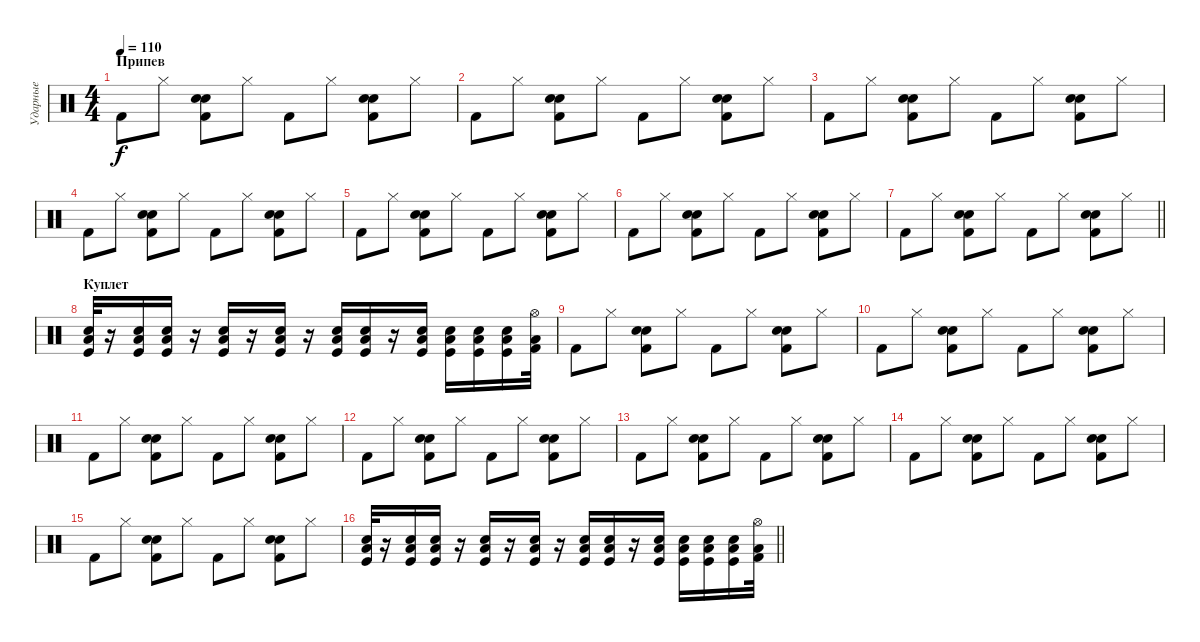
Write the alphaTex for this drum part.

\track ("Ударные" "Ударные") {instrument percussion}
\staff {score}
\articulation defaults
\ts (4 4)
\section ("" "Припев")
\tempo 110
\clef neutral
\ks c "Kick (hit) 2".8{dy f} "Hi-Hat (closed)".8
("Hand Clap (hit)" "Kick (hit) 2" "Electric Snare (hit)").8 "Hi-Hat (closed)".8 "Kick (hit) 2".8 "Hi-Hat (closed)".8 ("Hand Clap (hit)" "Kick (hit) 2" "Electric Snare (hit)").8 "Hi-Hat (closed)".8 |
"Kick (hit) 2".8 "Hi-Hat (closed)".8 ("Hand Clap (hit)" "Kick (hit) 2" "Electric Snare (hit)").8 "Hi-Hat (closed)".8 "Kick (hit) 2".8 "Hi-Hat (closed)".8 ("Hand Clap (hit)" "Kick (hit) 2" "Electric Snare (hit)").8 "Hi-Hat (closed)".8 |
"Kick (hit) 2".8 "Hi-Hat (closed)".8 ("Hand Clap (hit)" "Kick (hit) 2" "Electric Snare (hit)").8 "Hi-Hat (closed)".8 "Kick (hit) 2".8 "Hi-Hat (closed)".8 ("Hand Clap (hit)" "Kick (hit) 2" "Electric Snare (hit)").8 "Hi-Hat (closed)".8 |
"Kick (hit) 2".8 "Hi-Hat (closed)".8 ("Hand Clap (hit)" "Kick (hit) 2" "Electric Snare (hit)").8 "Hi-Hat (closed)".8 "Kick (hit) 2".8 "Hi-Hat (closed)".8 ("Hand Clap (hit)" "Kick (hit) 2" "Electric Snare (hit)").8 "Hi-Hat (closed)".8 |
"Kick (hit) 2".8 "Hi-Hat (closed)".8 ("Hand Clap (hit)" "Kick (hit) 2" "Electric Snare (hit)").8 "Hi-Hat (closed)".8 "Kick (hit) 2".8 "Hi-Hat (closed)".8 ("Hand Clap (hit)" "Kick (hit) 2" "Electric Snare (hit)").8 "Hi-Hat (closed)".8 |
"Kick (hit) 2".8 "Hi-Hat (closed)".8 ("Hand Clap (hit)" "Kick (hit) 2" "Electric Snare (hit)").8 "Hi-Hat (closed)".8 "Kick (hit) 2".8 "Hi-Hat (closed)".8 ("Hand Clap (hit)" "Kick (hit) 2" "Electric Snare (hit)").8 "Hi-Hat (closed)".8 |
\barLineRight lightlight "Kick (hit) 2".8 "Hi-Hat (closed)".8
("Hand Clap (hit)" "Kick (hit) 2" "Electric Snare (hit)").8 "Hi-Hat (closed)".8 "Kick (hit) 2".8 "Hi-Hat (closed)".8 ("Hand Clap (hit)" "Kick (hit) 2" "Electric Snare (hit)").8 "Hi-Hat (closed)".8 |
\section ("" "Куплет ")
("Low Floor Tom (hit)" "Kick (hit)" "Electric Snare (hit)").32 r.16 ("Low Floor Tom (hit)" "Kick (hit)" "Electric Snare (hit)").16 ("Low Floor Tom (hit)" "Kick (hit)" "Electric Snare (hit)").16 r.16 ("Low Floor Tom (hit)" "Kick (hit)" "Electric Snare (hit)").16 r.16 ("Low Floor Tom (hit)" "Kick (hit)" "Electric Snare (hit)").16 r.16 ("Low Floor Tom (hit)" "Kick (hit)" "Electric Snare (hit)").16 ("Low Floor Tom (hit)" "Kick (hit)" "Electric Snare (hit)").16 r.16 ("Low Floor Tom (hit)" "Kick (hit)" "Electric Snare (hit)").16 ("Low Floor Tom (hit)" "Kick (hit)" "Electric Snare (hit)").16 ("Low Floor Tom (hit)" "Kick (hit)" "Electric Snare (hit)").16 ("Low Floor Tom (hit)" "Kick (hit)" "Electric Snare (hit)").16 ("Low Floor Tom (hit)" "Hi-Hat (open)" "Kick (hit) 2").32 |
"Kick (hit) 2".8 "Hi-Hat (closed)".8 ("Hand Clap (hit)" "Kick (hit) 2" "Electric Snare (hit)").8 "Hi-Hat (closed)".8 "Kick (hit) 2".8 "Hi-Hat (closed)".8 ("Hand Clap (hit)" "Kick (hit) 2" "Electric Snare (hit)").8 "Hi-Hat (closed)".8 |
"Kick (hit) 2".8 "Hi-Hat (closed)".8 ("Hand Clap (hit)" "Kick (hit) 2" "Electric Snare (hit)").8 "Hi-Hat (closed)".8 "Kick (hit) 2".8 "Hi-Hat (closed)".8 ("Hand Clap (hit)" "Kick (hit) 2" "Electric Snare (hit)").8 "Hi-Hat (closed)".8 |
"Kick (hit) 2".8 "Hi-Hat (closed)".8 ("Hand Clap (hit)" "Kick (hit) 2" "Electric Snare (hit)").8 "Hi-Hat (closed)".8 "Kick (hit) 2".8 "Hi-Hat (closed)".8 ("Hand Clap (hit)" "Kick (hit) 2" "Electric Snare (hit)").8 "Hi-Hat (closed)".8 |
"Kick (hit) 2".8 "Hi-Hat (closed)".8 ("Hand Clap (hit)" "Kick (hit) 2" "Electric Snare (hit)").8 "Hi-Hat (closed)".8 "Kick (hit) 2".8 "Hi-Hat (closed)".8 ("Hand Clap (hit)" "Kick (hit) 2" "Electric Snare (hit)").8 "Hi-Hat (closed)".8 |
"Kick (hit) 2".8 "Hi-Hat (closed)".8 ("Hand Clap (hit)" "Kick (hit) 2" "Electric Snare (hit)").8 "Hi-Hat (closed)".8 "Kick (hit) 2".8 "Hi-Hat (closed)".8 ("Hand Clap (hit)" "Kick (hit) 2" "Electric Snare (hit)").8 "Hi-Hat (closed)".8 |
"Kick (hit) 2".8 "Hi-Hat (closed)".8 ("Hand Clap (hit)" "Kick (hit) 2" "Electric Snare (hit)").8 "Hi-Hat (closed)".8 "Kick (hit) 2".8 "Hi-Hat (closed)".8 ("Hand Clap (hit)" "Kick (hit) 2" "Electric Snare (hit)").8 "Hi-Hat (closed)".8 |
"Kick (hit) 2".8 "Hi-Hat (closed)".8 ("Hand Clap (hit)" "Kick (hit) 2" "Electric Snare (hit)").8 "Hi-Hat (closed)".8 "Kick (hit) 2".8 "Hi-Hat (closed)".8 ("Hand Clap (hit)" "Kick (hit) 2" "Electric Snare (hit)").8 "Hi-Hat (closed)".8 |
\barLineRight lightlight
("Low Floor Tom (hit)" "Kick (hit)" "Electric Snare (hit)").32 r.16 ("Low Floor Tom (hit)" "Kick (hit)" "Electric Snare (hit)").16 ("Low Floor Tom (hit)" "Kick (hit)" "Electric Snare (hit)").16 r.16 ("Low Floor Tom (hit)" "Kick (hit)" "Electric Snare (hit)").16 r.16 ("Low Floor Tom (hit)" "Kick (hit)" "Electric Snare (hit)").16 r.16 ("Low Floor Tom (hit)" "Kick (hit)" "Electric Snare (hit)").16 ("Low Floor Tom (hit)" "Kick (hit)" "Electric Snare (hit)").16 r.16 ("Low Floor Tom (hit)" "Kick (hit)" "Electric Snare (hit)").16 ("Low Floor Tom (hit)" "Kick (hit)" "Electric Snare (hit)").16 ("Low Floor Tom (hit)" "Kick (hit)" "Electric Snare (hit)").16 ("Low Floor Tom (hit)" "Kick (hit)" "Electric Snare (hit)").16 ("Low Floor Tom (hit)" "Hi-Hat (open)" "Kick (hit) 2").32
